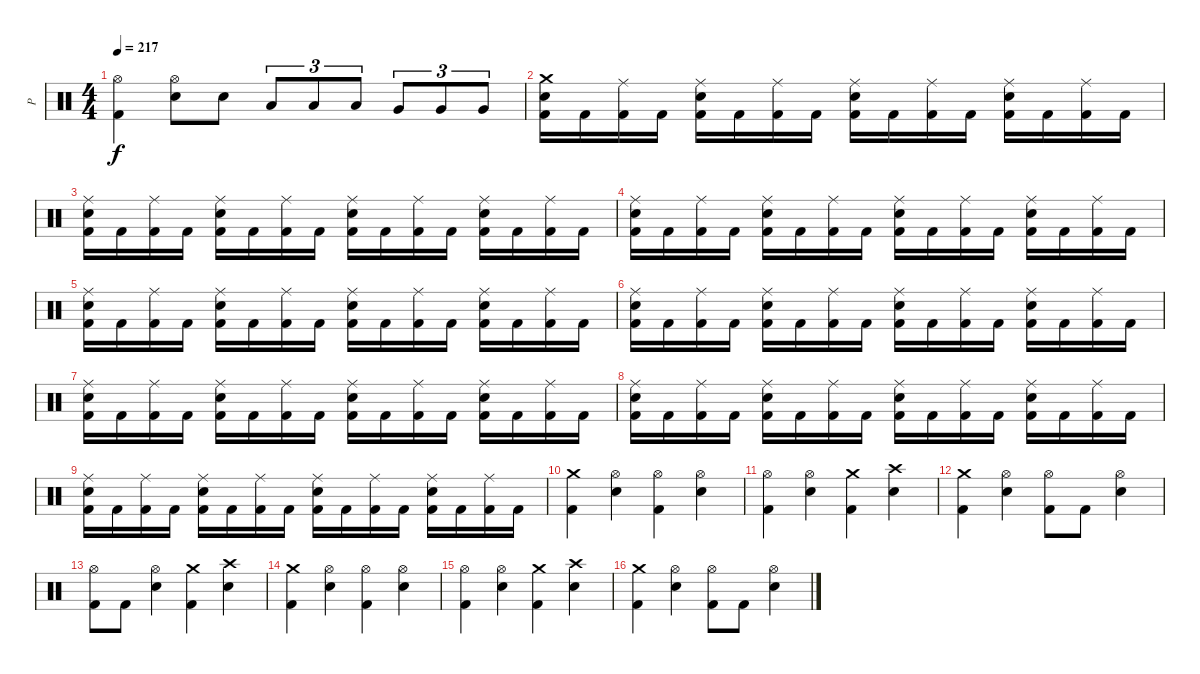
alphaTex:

\track ("P" "P") {instrument percussion}
\staff {score}
\articulation defaults
\ts (4 4)
\tempo 217
\clef neutral
\ks c
("Hi-Hat (open)" "Kick (hit) 2").4{dy f} ("Hi-Hat (open)" "Electric Snare (hit)").8 "Electric Snare (hit)".8 "Low Tom (hit)".8{tu (3 2)} "Low Tom (hit)".8{tu (3 2)} "Low Tom (hit)".8{tu (3 2)} "Very Low Tom (hit)".8{tu (3 2)} "Very Low Tom (hit)".8{tu (3 2)} "Very Low Tom (hit)".8{tu (3 2)} |
("Crash medium (hit)" "Electric Snare (hit)" "Kick (hit) 2").16 "Kick (hit) 2".16 ("Ride (middle)" "Kick (hit) 2").16 "Kick (hit) 2".16 ("Ride (middle)" "Electric Snare (hit)" "Kick (hit) 2").16 "Kick (hit) 2".16 ("Ride (middle)" "Kick (hit) 2").16 "Kick (hit) 2".16 ("Ride (middle)" "Electric Snare (hit)" "Kick (hit) 2").16 "Kick (hit) 2".16 ("Ride (middle)" "Kick (hit) 2").16 "Kick (hit) 2".16 ("Ride (middle)" "Electric Snare (hit)" "Kick (hit) 2").16 "Kick (hit) 2".16 ("Ride (middle)" "Kick (hit) 2").16 "Kick (hit) 2".16 |
("Ride (middle)" "Electric Snare (hit)" "Kick (hit) 2").16 "Kick (hit) 2".16 ("Ride (middle)" "Kick (hit) 2").16 "Kick (hit) 2".16 ("Ride (middle)" "Electric Snare (hit)" "Kick (hit) 2").16 "Kick (hit) 2".16 ("Ride (middle)" "Kick (hit) 2").16 "Kick (hit) 2".16 ("Ride (middle)" "Electric Snare (hit)" "Kick (hit) 2").16 "Kick (hit) 2".16 ("Ride (middle)" "Kick (hit) 2").16 "Kick (hit) 2".16 ("Ride (middle)" "Electric Snare (hit)" "Kick (hit) 2").16 "Kick (hit) 2".16 ("Ride (middle)" "Kick (hit) 2").16 "Kick (hit) 2".16 |
("Ride (middle)" "Electric Snare (hit)" "Kick (hit) 2").16 "Kick (hit) 2".16 ("Ride (middle)" "Kick (hit) 2").16 "Kick (hit) 2".16 ("Ride (middle)" "Electric Snare (hit)" "Kick (hit) 2").16 "Kick (hit) 2".16 ("Ride (middle)" "Kick (hit) 2").16 "Kick (hit) 2".16 ("Ride (middle)" "Electric Snare (hit)" "Kick (hit) 2").16 "Kick (hit) 2".16 ("Ride (middle)" "Kick (hit) 2").16 "Kick (hit) 2".16 ("Ride (middle)" "Electric Snare (hit)" "Kick (hit) 2").16 "Kick (hit) 2".16 ("Ride (middle)" "Kick (hit) 2").16 "Kick (hit) 2".16 |
("Ride (middle)" "Electric Snare (hit)" "Kick (hit) 2").16 "Kick (hit) 2".16 ("Ride (middle)" "Kick (hit) 2").16 "Kick (hit) 2".16 ("Ride (middle)" "Electric Snare (hit)" "Kick (hit) 2").16 "Kick (hit) 2".16 ("Ride (middle)" "Kick (hit) 2").16 "Kick (hit) 2".16 ("Ride (middle)" "Electric Snare (hit)" "Kick (hit) 2").16 "Kick (hit) 2".16 ("Ride (middle)" "Kick (hit) 2").16 "Kick (hit) 2".16 ("Ride (middle)" "Electric Snare (hit)" "Kick (hit) 2").16 "Kick (hit) 2".16 ("Ride (middle)" "Kick (hit) 2").16 "Kick (hit) 2".16 |
("Ride (middle)" "Electric Snare (hit)" "Kick (hit) 2").16 "Kick (hit) 2".16 ("Ride (middle)" "Kick (hit) 2").16 "Kick (hit) 2".16 ("Ride (middle)" "Electric Snare (hit)" "Kick (hit) 2").16 "Kick (hit) 2".16 ("Ride (middle)" "Kick (hit) 2").16 "Kick (hit) 2".16 ("Ride (middle)" "Electric Snare (hit)" "Kick (hit) 2").16 "Kick (hit) 2".16 ("Ride (middle)" "Kick (hit) 2").16 "Kick (hit) 2".16 ("Ride (middle)" "Electric Snare (hit)" "Kick (hit) 2").16 "Kick (hit) 2".16 ("Ride (middle)" "Kick (hit) 2").16 "Kick (hit) 2".16 |
("Ride (middle)" "Electric Snare (hit)" "Kick (hit) 2").16 "Kick (hit) 2".16 ("Ride (middle)" "Kick (hit) 2").16 "Kick (hit) 2".16 ("Ride (middle)" "Electric Snare (hit)" "Kick (hit) 2").16 "Kick (hit) 2".16 ("Ride (middle)" "Kick (hit) 2").16 "Kick (hit) 2".16 ("Ride (middle)" "Electric Snare (hit)" "Kick (hit) 2").16 "Kick (hit) 2".16 ("Ride (middle)" "Kick (hit) 2").16 "Kick (hit) 2".16 ("Ride (middle)" "Electric Snare (hit)" "Kick (hit) 2").16 "Kick (hit) 2".16 ("Ride (middle)" "Kick (hit) 2").16 "Kick (hit) 2".16 |
("Ride (middle)" "Electric Snare (hit)" "Kick (hit) 2").16 "Kick (hit) 2".16 ("Ride (middle)" "Kick (hit) 2").16 "Kick (hit) 2".16 ("Ride (middle)" "Electric Snare (hit)" "Kick (hit) 2").16 "Kick (hit) 2".16 ("Ride (middle)" "Kick (hit) 2").16 "Kick (hit) 2".16 ("Ride (middle)" "Electric Snare (hit)" "Kick (hit) 2").16 "Kick (hit) 2".16 ("Ride (middle)" "Kick (hit) 2").16 "Kick (hit) 2".16 ("Ride (middle)" "Electric Snare (hit)" "Kick (hit) 2").16 "Kick (hit) 2".16 ("Ride (middle)" "Kick (hit) 2").16 "Kick (hit) 2".16 |
("Ride (middle)" "Electric Snare (hit)" "Kick (hit) 2").16 "Kick (hit) 2".16 ("Ride (middle)" "Kick (hit) 2").16 "Kick (hit) 2".16 ("Ride (middle)" "Electric Snare (hit)" "Kick (hit) 2").16 "Kick (hit) 2".16 ("Ride (middle)" "Kick (hit) 2").16 "Kick (hit) 2".16 ("Ride (middle)" "Electric Snare (hit)" "Kick (hit) 2").16 "Kick (hit) 2".16 ("Ride (middle)" "Kick (hit) 2").16 "Kick (hit) 2".16 ("Ride (middle)" "Electric Snare (hit)" "Kick (hit) 2").16 "Kick (hit) 2".16 ("Ride (middle)" "Kick (hit) 2").16 "Kick (hit) 2".16 |
("Crash medium (hit)" "Kick (hit) 2").4 ("Hi-Hat (open)" "Electric Snare (hit)").4 ("Hi-Hat (open)" "Kick (hit) 2").4 ("Hi-Hat (open)" "Electric Snare (hit)").4 |
("Hi-Hat (open)" "Kick (hit) 2").4 ("Hi-Hat (open)" "Electric Snare (hit)").4 ("Crash medium (hit)" "Kick (hit) 2").4 ("Crash high (hit)" "Electric Snare (hit)").4 |
("Crash medium (hit)" "Kick (hit) 2").4 ("Hi-Hat (open)" "Electric Snare (hit)").4 ("Hi-Hat (open)" "Kick (hit) 2").8 "Kick (hit) 2".8 ("Hi-Hat (open)" "Electric Snare (hit)").4 |
("Hi-Hat (open)" "Kick (hit) 2").8 "Kick (hit) 2".8 ("Hi-Hat (open)" "Electric Snare (hit)").4 ("Crash medium (hit)" "Kick (hit) 2").4 ("Crash high (hit)" "Electric Snare (hit)").4 |
("Crash medium (hit)" "Kick (hit) 2").4 ("Hi-Hat (open)" "Electric Snare (hit)").4 ("Hi-Hat (open)" "Kick (hit) 2").4 ("Hi-Hat (open)" "Electric Snare (hit)").4 |
("Hi-Hat (open)" "Kick (hit) 2").4 ("Hi-Hat (open)" "Electric Snare (hit)").4 ("Crash medium (hit)" "Kick (hit) 2").4 ("Crash high (hit)" "Electric Snare (hit)").4 |
("Crash medium (hit)" "Kick (hit) 2").4 ("Hi-Hat (open)" "Electric Snare (hit)").4 ("Hi-Hat (open)" "Kick (hit) 2").8 "Kick (hit) 2".8 ("Hi-Hat (open)" "Electric Snare (hit)").4
